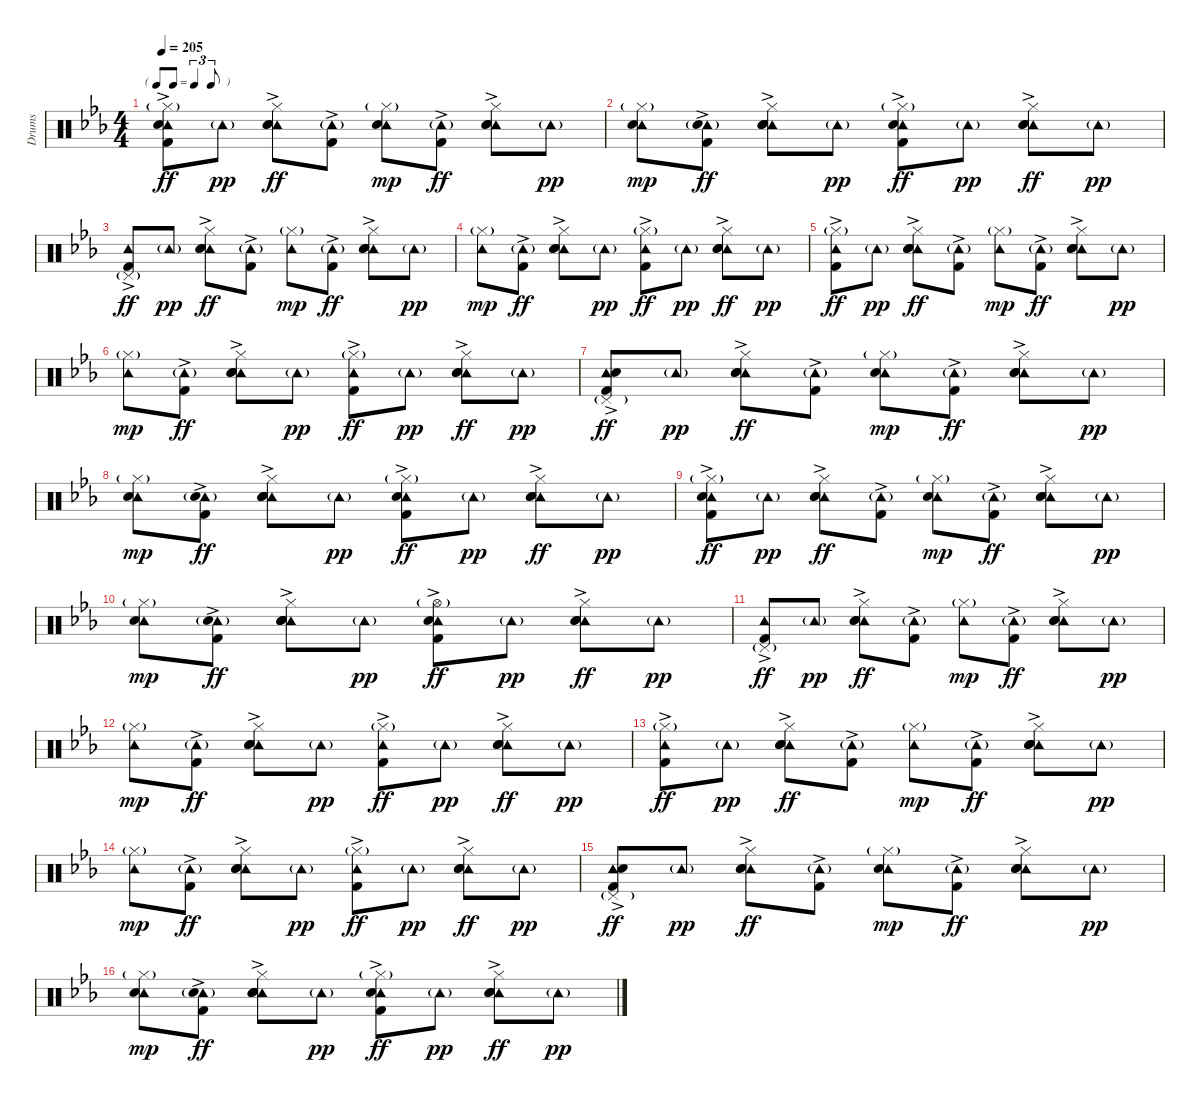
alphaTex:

\track ("Drums" "Drums") {instrument percussion}
\staff {score}
\articulation defaults
\ts (4 4)
\tf triplet8th
\tempo 205
\clef neutral
\ks eb
("Hi-Hat (closed)"{g} "Tambourine (hit)" "Hand Clap (hit)" "Kick (hit) 2"{ac}).8{dy ff} "Tambourine (hit)"{g}.8{dy pp} ("Hi-Hat (closed)" "Tambourine (hit)"{ac} "Electric Snare (hit)"{ac} "Snare (hit) 2").8{dy ff} ("Tambourine (hit)"{g} "Kick (hit) 2"{ac}).8 ("Hi-Hat (closed)"{g} "Tambourine (hit)" "Hand Clap (hit)").8{dy mp} ("Tambourine (hit)"{g} "Kick (hit) 2"{ac}).8{dy ff} ("Hi-Hat (closed)" "Tambourine (hit)"{ac} "Electric Snare (hit)"{ac} "Snare (hit) 2").8 "Tambourine (hit)"{g}.8{dy pp} |
("Hi-Hat (closed)"{g} "Tambourine (hit)" "Hand Clap (hit)").8{dy mp} ("Tambourine (hit)"{g} "Hand Clap (hit)" "Kick (hit) 2"{ac}).8{dy ff} ("Hi-Hat (closed)" "Tambourine (hit)"{ac} "Hand Clap (hit)" "Electric Snare (hit)"{ac} "Snare (hit) 2").8 "Tambourine (hit)"{g}.8{dy pp} ("Hi-Hat (closed)"{g} "Tambourine (hit)" "Hand Clap (hit)" "Kick (hit) 2"{ac}).8{dy ff} "Tambourine (hit)"{g}.8{dy pp} ("Hi-Hat (closed)" "Tambourine (hit)"{ac} "Electric Snare (hit)"{ac} "Snare (hit) 2").8{dy ff} "Tambourine (hit)"{g}.8{dy pp} |
("Pedal Hi-Hat (hit)"{g} "Tambourine (hit)" "Kick (hit) 2"{ac}).8{dy ff} "Tambourine (hit)"{g}.8{dy pp} ("Hi-Hat (closed)" "Tambourine (hit)"{ac} "Electric Snare (hit)"{ac} "Snare (hit) 2").8{dy ff} ("Tambourine (hit)"{g} "Kick (hit) 2"{ac}).8 ("Hi-Hat (closed)"{g} "Tambourine (hit)").8{dy mp} ("Tambourine (hit)"{g} "Kick (hit) 2"{ac}).8{dy ff} ("Hi-Hat (closed)" "Tambourine (hit)"{ac} "Electric Snare (hit)"{ac} "Snare (hit) 2").8 "Tambourine (hit)"{g}.8{dy pp} |
("Hi-Hat (closed)"{g} "Tambourine (hit)").8{dy mp} ("Tambourine (hit)"{g} "Kick (hit) 2"{ac}).8{dy ff} ("Hi-Hat (closed)" "Tambourine (hit)"{ac} "Electric Snare (hit)"{ac} "Snare (hit) 2").8 "Tambourine (hit)"{g}.8{dy pp} ("Hi-Hat (closed)"{g} "Tambourine (hit)" "Kick (hit) 2"{ac}).8{dy ff} "Tambourine (hit)"{g}.8{dy pp} ("Hi-Hat (closed)" "Tambourine (hit)"{ac} "Electric Snare (hit)"{ac} "Snare (hit) 2").8{dy ff} "Tambourine (hit)"{g}.8{dy pp} |
("Hi-Hat (closed)"{g} "Tambourine (hit)" "Kick (hit) 2"{ac}).8{dy ff} "Tambourine (hit)"{g}.8{dy pp} ("Hi-Hat (closed)" "Tambourine (hit)"{ac} "Electric Snare (hit)"{ac} "Snare (hit) 2").8{dy ff} ("Tambourine (hit)"{g} "Kick (hit) 2"{ac}).8 ("Hi-Hat (closed)"{g} "Tambourine (hit)").8{dy mp} ("Tambourine (hit)"{g} "Kick (hit) 2"{ac}).8{dy ff} ("Hi-Hat (closed)" "Tambourine (hit)"{ac} "Electric Snare (hit)"{ac} "Snare (hit) 2").8 "Tambourine (hit)"{g}.8{dy pp} |
("Hi-Hat (closed)"{g} "Tambourine (hit)").8{dy mp} ("Tambourine (hit)"{g} "Kick (hit) 2"{ac}).8{dy ff} ("Hi-Hat (closed)" "Tambourine (hit)"{ac} "Electric Snare (hit)"{ac} "Snare (hit) 2").8 "Tambourine (hit)"{g}.8{dy pp} ("Hi-Hat (closed)"{g} "Tambourine (hit)" "Kick (hit) 2"{ac}).8{dy ff} "Tambourine (hit)"{g}.8{dy pp} ("Hi-Hat (closed)" "Tambourine (hit)"{ac} "Electric Snare (hit)"{ac} "Snare (hit) 2").8{dy ff} "Tambourine (hit)"{g}.8{dy pp} |
("Pedal Hi-Hat (hit)"{g} "Tambourine (hit)" "Hand Clap (hit)" "Kick (hit) 2"{ac}).8{dy ff} "Tambourine (hit)"{g}.8{dy pp} ("Hi-Hat (closed)" "Tambourine (hit)"{ac} "Electric Snare (hit)"{ac} "Snare (hit) 2").8{dy ff} ("Tambourine (hit)"{g} "Kick (hit) 2"{ac}).8 ("Hi-Hat (closed)"{g} "Tambourine (hit)" "Hand Clap (hit)").8{dy mp} ("Tambourine (hit)"{g} "Kick (hit) 2"{ac}).8{dy ff} ("Hi-Hat (closed)" "Tambourine (hit)"{ac} "Electric Snare (hit)"{ac} "Snare (hit) 2").8 "Tambourine (hit)"{g}.8{dy pp} |
("Hi-Hat (closed)"{g} "Tambourine (hit)" "Hand Clap (hit)").8{dy mp} ("Tambourine (hit)"{g} "Hand Clap (hit)" "Kick (hit) 2"{ac}).8{dy ff} ("Hi-Hat (closed)" "Tambourine (hit)"{ac} "Hand Clap (hit)" "Electric Snare (hit)"{ac} "Snare (hit) 2").8 "Tambourine (hit)"{g}.8{dy pp} ("Hi-Hat (closed)"{g} "Tambourine (hit)" "Hand Clap (hit)" "Kick (hit) 2"{ac}).8{dy ff} "Tambourine (hit)"{g}.8{dy pp} ("Hi-Hat (closed)" "Tambourine (hit)"{ac} "Electric Snare (hit)"{ac} "Snare (hit) 2").8{dy ff} "Tambourine (hit)"{g}.8{dy pp} |
("Hi-Hat (closed)"{g} "Tambourine (hit)" "Hand Clap (hit)" "Kick (hit) 2"{ac}).8{dy ff} "Tambourine (hit)"{g}.8{dy pp} ("Hi-Hat (closed)" "Tambourine (hit)"{ac} "Electric Snare (hit)"{ac} "Snare (hit) 2").8{dy ff} ("Tambourine (hit)"{g} "Kick (hit) 2"{ac}).8 ("Hi-Hat (closed)"{g} "Tambourine (hit)" "Hand Clap (hit)").8{dy mp} ("Tambourine (hit)"{g} "Kick (hit) 2"{ac}).8{dy ff} ("Hi-Hat (closed)" "Tambourine (hit)"{ac} "Electric Snare (hit)"{ac} "Snare (hit) 2").8 "Tambourine (hit)"{g}.8{dy pp} |
("Hi-Hat (closed)"{g} "Tambourine (hit)" "Hand Clap (hit)").8{dy mp} ("Tambourine (hit)"{g} "Hand Clap (hit)" "Kick (hit) 2"{ac}).8{dy ff} ("Hi-Hat (closed)" "Tambourine (hit)"{ac} "Hand Clap (hit)" "Electric Snare (hit)"{ac} "Snare (hit) 2").8 "Tambourine (hit)"{g}.8{dy pp} ("Hi-Hat (open)"{g} "Tambourine (hit)" "Hand Clap (hit)" "Kick (hit) 2"{ac}).8{dy ff} "Tambourine (hit)"{g}.8{dy pp} ("Hi-Hat (closed)" "Tambourine (hit)"{ac} "Electric Snare (hit)"{ac} "Snare (hit) 2").8{dy ff} "Tambourine (hit)"{g}.8{dy pp} |
("Pedal Hi-Hat (hit)"{g} "Tambourine (hit)" "Kick (hit) 2"{ac}).8{dy ff} "Tambourine (hit)"{g}.8{dy pp} ("Hi-Hat (closed)" "Tambourine (hit)"{ac} "Electric Snare (hit)"{ac} "Snare (hit) 2").8{dy ff} ("Tambourine (hit)"{g} "Kick (hit) 2"{ac}).8 ("Hi-Hat (closed)"{g} "Tambourine (hit)").8{dy mp} ("Tambourine (hit)"{g} "Kick (hit) 2"{ac}).8{dy ff} ("Hi-Hat (closed)" "Tambourine (hit)"{ac} "Electric Snare (hit)"{ac} "Snare (hit) 2").8 "Tambourine (hit)"{g}.8{dy pp} |
("Hi-Hat (closed)"{g} "Tambourine (hit)").8{dy mp} ("Tambourine (hit)"{g} "Kick (hit) 2"{ac}).8{dy ff} ("Hi-Hat (closed)" "Tambourine (hit)"{ac} "Electric Snare (hit)"{ac} "Snare (hit) 2").8 "Tambourine (hit)"{g}.8{dy pp} ("Hi-Hat (closed)"{g} "Tambourine (hit)" "Kick (hit) 2"{ac}).8{dy ff} "Tambourine (hit)"{g}.8{dy pp} ("Hi-Hat (closed)" "Tambourine (hit)"{ac} "Electric Snare (hit)"{ac} "Snare (hit) 2").8{dy ff} "Tambourine (hit)"{g}.8{dy pp} |
("Hi-Hat (closed)"{g} "Tambourine (hit)" "Kick (hit) 2"{ac}).8{dy ff} "Tambourine (hit)"{g}.8{dy pp} ("Hi-Hat (closed)" "Tambourine (hit)"{ac} "Electric Snare (hit)"{ac} "Snare (hit) 2").8{dy ff} ("Tambourine (hit)"{g} "Kick (hit) 2"{ac}).8 ("Hi-Hat (closed)"{g} "Tambourine (hit)").8{dy mp} ("Tambourine (hit)"{g} "Kick (hit) 2"{ac}).8{dy ff} ("Hi-Hat (closed)" "Tambourine (hit)"{ac} "Electric Snare (hit)"{ac} "Snare (hit) 2").8 "Tambourine (hit)"{g}.8{dy pp} |
("Hi-Hat (closed)"{g} "Tambourine (hit)").8{dy mp} ("Tambourine (hit)"{g} "Kick (hit) 2"{ac}).8{dy ff} ("Hi-Hat (closed)" "Tambourine (hit)"{ac} "Electric Snare (hit)"{ac} "Snare (hit) 2").8 "Tambourine (hit)"{g}.8{dy pp} ("Hi-Hat (closed)"{g} "Tambourine (hit)" "Kick (hit) 2"{ac}).8{dy ff} "Tambourine (hit)"{g}.8{dy pp} ("Hi-Hat (closed)" "Tambourine (hit)"{ac} "Electric Snare (hit)"{ac} "Snare (hit) 2").8{dy ff} "Tambourine (hit)"{g}.8{dy pp} |
("Pedal Hi-Hat (hit)"{g} "Tambourine (hit)" "Hand Clap (hit)" "Kick (hit) 2"{ac}).8{dy ff} "Tambourine (hit)"{g}.8{dy pp} ("Hi-Hat (closed)" "Tambourine (hit)"{ac} "Electric Snare (hit)"{ac} "Snare (hit) 2").8{dy ff} ("Tambourine (hit)"{g} "Kick (hit) 2"{ac}).8 ("Hi-Hat (closed)"{g} "Tambourine (hit)" "Hand Clap (hit)").8{dy mp} ("Tambourine (hit)"{g} "Kick (hit) 2"{ac}).8{dy ff} ("Hi-Hat (closed)" "Tambourine (hit)"{ac} "Electric Snare (hit)"{ac} "Snare (hit) 2").8 "Tambourine (hit)"{g}.8{dy pp} |
("Hi-Hat (closed)"{g} "Tambourine (hit)" "Hand Clap (hit)").8{dy mp} ("Tambourine (hit)"{g} "Hand Clap (hit)" "Kick (hit) 2"{ac}).8{dy ff} ("Hi-Hat (closed)" "Tambourine (hit)"{ac} "Hand Clap (hit)" "Electric Snare (hit)"{ac} "Snare (hit) 2").8 "Tambourine (hit)"{g}.8{dy pp} ("Hi-Hat (closed)"{g} "Tambourine (hit)" "Hand Clap (hit)" "Kick (hit) 2"{ac}).8{dy ff} "Tambourine (hit)"{g}.8{dy pp} ("Hi-Hat (closed)" "Tambourine (hit)"{ac} "Electric Snare (hit)"{ac} "Snare (hit) 2").8{dy ff} "Tambourine (hit)"{g}.8{dy pp}
